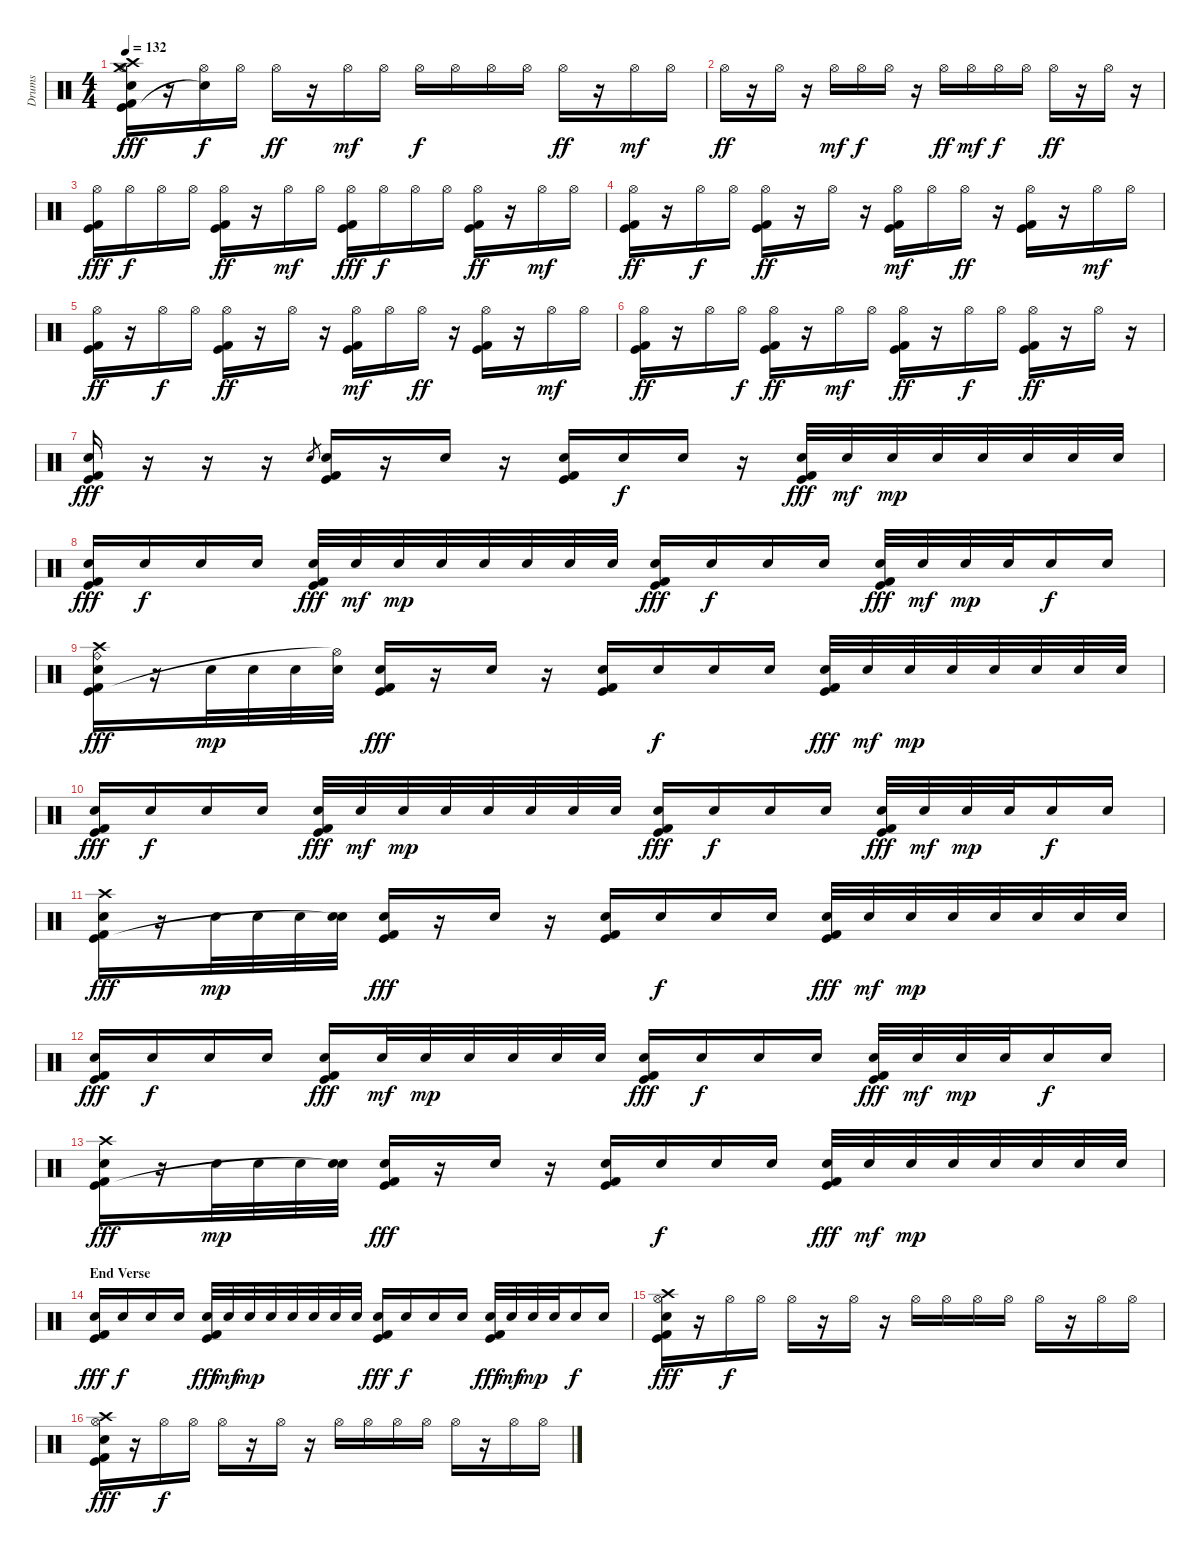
\track ("Drums" "Drums") {instrument percussion}
\staff {score}
\articulation defaults
\ts (4 4)
\tempo 132
\clef neutral
\ks c
("Kick (hit) 2" "Kick (hit)" "Snare (hit) 2" "Crash high (hit)" "Hi-Hat (open)" "Crash medium (hit)").16{dy fff} r.16 ("Hi-Hat (open)" "Snare (hit)"{t}).16{dy f} "Hi-Hat (open)".16 "Hi-Hat (open)".16{dy ff} r.16 "Hi-Hat (open)".16{dy mf} "Hi-Hat (open)".16 "Hi-Hat (open)".16{dy f} "Hi-Hat (open)".16 "Hi-Hat (open)".16 "Hi-Hat (open)".16 "Hi-Hat (open)".16{dy ff} r.16 "Hi-Hat (open)".16{dy mf} "Hi-Hat (open)".16 |
"Hi-Hat (open)".16{dy ff} r.16 "Hi-Hat (open)".16 r.16 "Hi-Hat (open)".16{dy mf} "Hi-Hat (open)".16{dy f} "Hi-Hat (open)".16 r.16 "Hi-Hat (open)".16{dy ff} "Hi-Hat (open)".16{dy mf} "Hi-Hat (open)".16{dy f} "Hi-Hat (open)".16 "Hi-Hat (open)".16{dy ff} r.16 "Hi-Hat (open)".16 r.16 |
("Kick (hit) 2" "Kick (hit)" "Hi-Hat (open)").16{dy fff} "Hi-Hat (open)".16{dy f} "Hi-Hat (open)".16 "Hi-Hat (open)".16 ("Kick (hit) 2" "Kick (hit)" "Hi-Hat (open)").16{dy ff} r.16 "Hi-Hat (open)".16{dy mf} "Hi-Hat (open)".16 ("Kick (hit) 2" "Kick (hit)" "Hi-Hat (open)").16{dy fff} "Hi-Hat (open)".16{dy f} "Hi-Hat (open)".16 "Hi-Hat (open)".16 ("Kick (hit) 2" "Kick (hit)" "Hi-Hat (open)").16{dy ff} r.16 "Hi-Hat (open)".16{dy mf} "Hi-Hat (open)".16 |
("Kick (hit) 2" "Kick (hit)" "Hi-Hat (open)").16{dy ff} r.16 "Hi-Hat (open)".16{dy f} "Hi-Hat (open)".16 ("Kick (hit) 2" "Kick (hit)" "Hi-Hat (open)").16{dy ff} r.16 "Hi-Hat (open)".16 r.16 ("Kick (hit) 2" "Kick (hit)" "Hi-Hat (open)").16{dy mf} "Hi-Hat (open)".16 "Hi-Hat (open)".16{dy ff} r.16 ("Kick (hit) 2" "Kick (hit)" "Hi-Hat (open)").16 r.16 "Hi-Hat (open)".16{dy mf} "Hi-Hat (open)".16 |
("Kick (hit) 2" "Kick (hit)" "Hi-Hat (open)").16{dy ff} r.16 "Hi-Hat (open)".16{dy f} "Hi-Hat (open)".16 ("Kick (hit) 2" "Kick (hit)" "Hi-Hat (open)").16{dy ff} r.16 "Hi-Hat (open)".16 r.16 ("Kick (hit) 2" "Kick (hit)" "Hi-Hat (open)").16{dy mf} "Hi-Hat (open)".16 "Hi-Hat (open)".16{dy ff} r.16 ("Kick (hit) 2" "Kick (hit)" "Hi-Hat (open)").16 r.16 "Hi-Hat (open)".16{dy mf} "Hi-Hat (open)".16 |
("Kick (hit) 2" "Kick (hit)" "Hi-Hat (open)").16{dy ff} r.16 "Hi-Hat (open)".16 "Hi-Hat (open)".16{dy f} ("Kick (hit) 2" "Kick (hit)" "Hi-Hat (open)").16{dy ff} r.16 "Hi-Hat (open)".16{dy mf} "Hi-Hat (open)".16 ("Kick (hit) 2" "Kick (hit)" "Hi-Hat (open)").16{dy ff} r.16 "Hi-Hat (open)".16{dy f} "Hi-Hat (open)".16 ("Kick (hit) 2" "Kick (hit)" "Hi-Hat (open)").16{dy ff} r.16 "Hi-Hat (open)".16 r.16 |
("Kick (hit) 2" "Kick (hit)" "Snare (hit) 2").16{dy fff} r.16 r.16 r.16 "Snare (hit) 2".8{gr} ("Kick (hit) 2" "Kick (hit)" "Snare (hit) 2").16 r.16 "Electric Snare (hit)".16 r.16 ("Kick (hit) 2" "Kick (hit)" "Snare (hit) 2").16 "Snare (hit) 2".16{dy f} "Snare (hit) 2".16 r.16 ("Kick (hit) 2" "Kick (hit)" "Electric Snare (hit)").32{dy fff} "Electric Snare (hit)".32{dy mf} "Electric Snare (hit)".32{dy mp} "Electric Snare (hit)".32 "Electric Snare (hit)".32 "Electric Snare (hit)".32 "Electric Snare (hit)".32 "Electric Snare (hit)".32 |
("Kick (hit) 2" "Kick (hit)" "Snare (hit) 2").16{dy fff} "Snare (hit) 2".16{dy f} "Snare (hit) 2".16 "Snare (hit) 2".16 ("Kick (hit) 2" "Kick (hit)" "Electric Snare (hit)").32{dy fff} "Electric Snare (hit)".32{dy mf} "Electric Snare (hit)".32{dy mp} "Electric Snare (hit)".32 "Electric Snare (hit)".32 "Electric Snare (hit)".32 "Electric Snare (hit)".32 "Electric Snare (hit)".32 ("Kick (hit) 2" "Kick (hit)" "Snare (hit) 2").16{dy fff} "Snare (hit) 2".16{dy f} "Snare (hit) 2".16 "Snare (hit) 2".16 ("Kick (hit) 2" "Kick (hit)" "Electric Snare (hit)").32{dy fff} "Electric Snare (hit)".32{dy mf} "Electric Snare (hit)".32{dy mp} "Electric Snare (hit)".32 "Snare (hit) 2".16{dy f} "Snare (hit) 2".16 |
("Kick (hit) 2" "Kick (hit)" "Snare (hit) 2" "Crash high (hit)" "Ride (bell)").16{dy fff} r.16 "Electric Snare (hit)".32{dy mp} "Electric Snare (hit)".32 "Electric Snare (hit)".32 ("Electric Snare (hit)" "Hi-Hat (open)"{t}).32 ("Kick (hit) 2" "Kick (hit)" "Snare (hit) 2").16{dy fff} r.16 "Electric Snare (hit)".16 r.16 ("Kick (hit) 2" "Kick (hit)" "Snare (hit) 2").16 "Snare (hit) 2".16{dy f} "Snare (hit) 2".16 "Snare (hit) 2".16 ("Kick (hit) 2" "Kick (hit)" "Electric Snare (hit)").32{dy fff} "Electric Snare (hit)".32{dy mf} "Electric Snare (hit)".32{dy mp} "Electric Snare (hit)".32 "Electric Snare (hit)".32 "Electric Snare (hit)".32 "Electric Snare (hit)".32 "Electric Snare (hit)".32 |
("Kick (hit) 2" "Kick (hit)" "Snare (hit) 2").16{dy fff} "Snare (hit) 2".16{dy f} "Snare (hit) 2".16 "Snare (hit) 2".16 ("Kick (hit) 2" "Kick (hit)" "Electric Snare (hit)").32{dy fff} "Electric Snare (hit)".32{dy mf} "Electric Snare (hit)".32{dy mp} "Electric Snare (hit)".32 "Electric Snare (hit)".32 "Electric Snare (hit)".32 "Electric Snare (hit)".32 "Electric Snare (hit)".32 ("Kick (hit) 2" "Kick (hit)" "Snare (hit) 2").16{dy fff} "Snare (hit) 2".16{dy f} "Snare (hit) 2".16 "Snare (hit) 2".16 ("Kick (hit) 2" "Kick (hit)" "Electric Snare (hit)").32{dy fff} "Electric Snare (hit)".32{dy mf} "Electric Snare (hit)".32{dy mp} "Electric Snare (hit)".32 "Snare (hit) 2".16{dy f} "Snare (hit) 2".16 |
("Kick (hit) 2" "Kick (hit)" "Snare (hit) 2" "Crash high (hit)").16{dy fff} r.16 "Electric Snare (hit)".32{dy mp} "Electric Snare (hit)".32 "Electric Snare (hit)".32 ("Electric Snare (hit)" "Snare (hit)"{t}).32 ("Kick (hit) 2" "Kick (hit)" "Snare (hit) 2").16{dy fff} r.16 "Electric Snare (hit)".16 r.16 ("Kick (hit) 2" "Kick (hit)" "Snare (hit) 2").16 "Snare (hit) 2".16{dy f} "Snare (hit) 2".16 "Snare (hit) 2".16 ("Kick (hit) 2" "Kick (hit)" "Electric Snare (hit)").32{dy fff} "Electric Snare (hit)".32{dy mf} "Electric Snare (hit)".32{dy mp} "Electric Snare (hit)".32 "Electric Snare (hit)".32 "Electric Snare (hit)".32 "Electric Snare (hit)".32 "Electric Snare (hit)".32 |
("Kick (hit) 2" "Kick (hit)" "Snare (hit) 2").16{dy fff} "Snare (hit) 2".16{dy f} "Snare (hit) 2".16 "Snare (hit) 2".16 ("Kick (hit) 2" "Kick (hit)" "Electric Snare (hit)").16{dy fff} "Electric Snare (hit)".32{dy mf} "Electric Snare (hit)".32{dy mp} "Electric Snare (hit)".32 "Electric Snare (hit)".32 "Electric Snare (hit)".32 "Electric Snare (hit)".32 ("Kick (hit) 2" "Kick (hit)" "Snare (hit) 2").16{dy fff} "Snare (hit) 2".16{dy f} "Snare (hit) 2".16 "Snare (hit) 2".16 ("Kick (hit) 2" "Kick (hit)" "Electric Snare (hit)").32{dy fff} "Electric Snare (hit)".32{dy mf} "Electric Snare (hit)".32{dy mp} "Electric Snare (hit)".32 "Snare (hit) 2".16{dy f} "Snare (hit) 2".16 |
("Kick (hit) 2" "Kick (hit)" "Snare (hit) 2" "Crash high (hit)").16{dy fff} r.16 "Electric Snare (hit)".32{dy mp} "Electric Snare (hit)".32 "Electric Snare (hit)".32 ("Electric Snare (hit)" "Snare (hit)"{t}).32 ("Kick (hit) 2" "Kick (hit)" "Snare (hit) 2").16{dy fff} r.16 "Electric Snare (hit)".16 r.16 ("Kick (hit) 2" "Kick (hit)" "Snare (hit) 2").16 "Snare (hit) 2".16{dy f} "Snare (hit) 2".16 "Snare (hit) 2".16 ("Kick (hit) 2" "Kick (hit)" "Electric Snare (hit)").32{dy fff} "Electric Snare (hit)".32{dy mf} "Electric Snare (hit)".32{dy mp} "Electric Snare (hit)".32 "Electric Snare (hit)".32 "Electric Snare (hit)".32 "Electric Snare (hit)".32 "Electric Snare (hit)".32 |
\section ("" "End Verse")
("Kick (hit) 2" "Kick (hit)" "Snare (hit) 2").16{dy fff} "Snare (hit) 2".16{dy f} "Snare (hit) 2".16 "Snare (hit) 2".16 ("Kick (hit) 2" "Kick (hit)" "Electric Snare (hit)").32{dy fff} "Electric Snare (hit)".32{dy mf} "Electric Snare (hit)".32{dy mp} "Electric Snare (hit)".32 "Electric Snare (hit)".32 "Electric Snare (hit)".32 "Electric Snare (hit)".32 "Electric Snare (hit)".32 ("Kick (hit) 2" "Kick (hit)" "Snare (hit) 2").16{dy fff} "Snare (hit) 2".16{dy f} "Snare (hit) 2".16 "Snare (hit) 2".16 ("Kick (hit) 2" "Kick (hit)" "Electric Snare (hit)").32{dy fff} "Electric Snare (hit)".32{dy mf} "Electric Snare (hit)".32{dy mp} "Electric Snare (hit)".32 "Snare (hit) 2".16{dy f} "Snare (hit) 2".16 |
("Kick (hit) 2" "Kick (hit)" "Snare (hit) 2" "Crash high (hit)" "Hi-Hat (open)").16{dy fff} r.16 "Hi-Hat (open)".16{dy f} "Hi-Hat (open)".16 "Hi-Hat (open)".16 r.16 "Hi-Hat (open)".16 r.16 "Hi-Hat (open)".16 "Hi-Hat (open)".16 "Hi-Hat (open)".16 "Hi-Hat (open)".16 "Hi-Hat (open)".16 r.16 "Hi-Hat (open)".16 "Hi-Hat (open)".16 |
("Kick (hit) 2" "Kick (hit)" "Snare (hit) 2" "Crash high (hit)" "Hi-Hat (open)").16{dy fff} r.16 "Hi-Hat (open)".16{dy f} "Hi-Hat (open)".16 "Hi-Hat (open)".16 r.16 "Hi-Hat (open)".16 r.16 "Hi-Hat (open)".16 "Hi-Hat (open)".16 "Hi-Hat (open)".16 "Hi-Hat (open)".16 "Hi-Hat (open)".16 r.16 "Hi-Hat (open)".16 "Hi-Hat (open)".16
